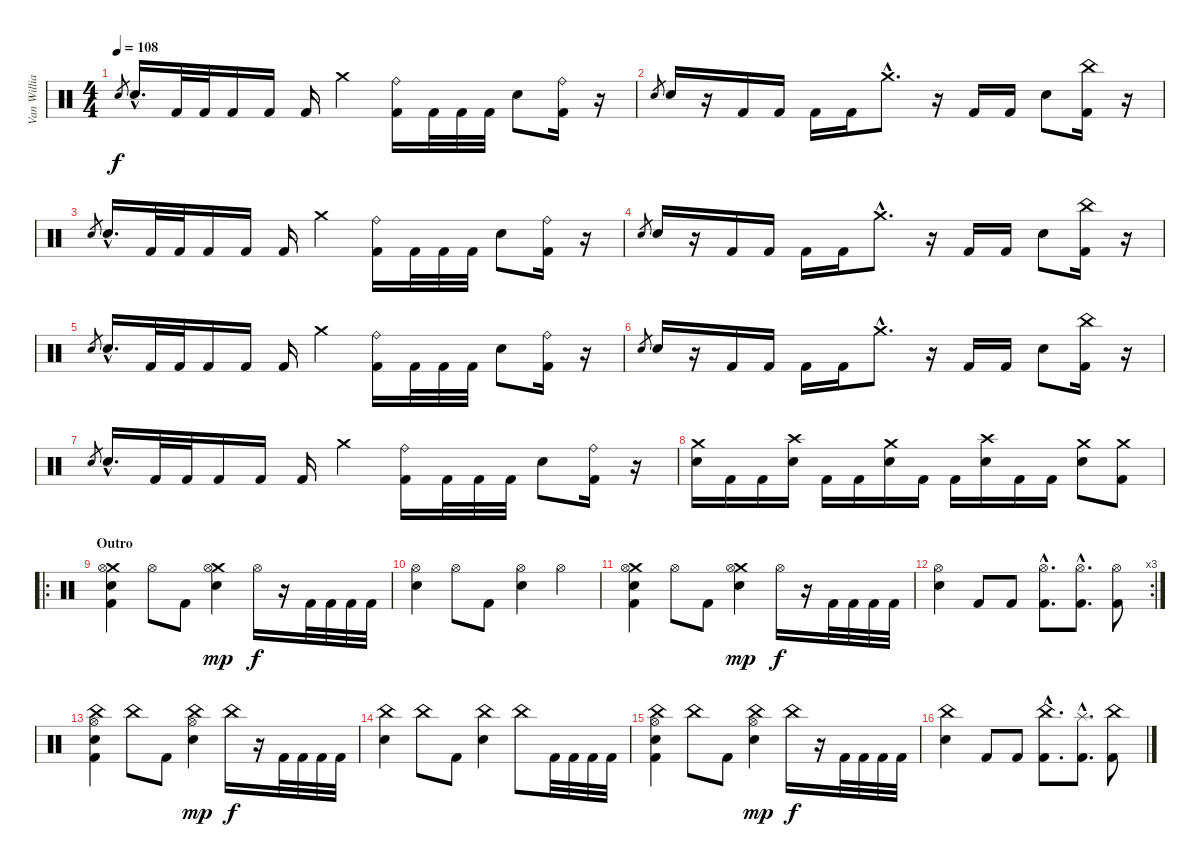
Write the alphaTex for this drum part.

\track ("Van Williams" "Van Willia") {instrument percussion}
\staff {score}
\articulation defaults
\ts (4 4)
\tempo 108
\clef neutral
\ks c "Electric Snare (hit)".8{gr dy f} "Electric Snare (hit)"{hac}.16{d} "Kick (hit) 2".32 "Kick (hit) 2".32 "Kick (hit) 2".16 "Kick (hit) 2".16 "Kick (hit) 2".16 "Crash medium (hit)".4
("Ride (bell)" "Kick (hit) 2").16 "Kick (hit) 2".32 "Kick (hit) 2".32 "Kick (hit) 2".32 "Electric Snare (hit)".8 ("Ride (bell)" "Kick (hit) 2").16 r.16 |
"Electric Snare (hit)".8{gr} "Electric Snare (hit)".16 r.16 "Kick (hit) 2".16 "Kick (hit) 2".16 "Kick (hit) 2".16 "Kick (hit) 2".16 "Crash medium (hit)"{hac}.8{d} r.16 "Kick (hit) 2".16 "Kick (hit) 2".16 "Electric Snare (hit)".8 ("China (hit)" "Kick (hit) 2").16 r.16 |
"Electric Snare (hit)".8{gr} "Electric Snare (hit)"{hac}.16{d} "Kick (hit) 2".32 "Kick (hit) 2".32 "Kick (hit) 2".16 "Kick (hit) 2".16 "Kick (hit) 2".16 "Crash medium (hit)".4 ("Ride (bell)" "Kick (hit) 2").16 "Kick (hit) 2".32 "Kick (hit) 2".32 "Kick (hit) 2".32 "Electric Snare (hit)".8 ("Ride (bell)" "Kick (hit) 2").16 r.16 |
"Electric Snare (hit)".8{gr} "Electric Snare (hit)".16 r.16 "Kick (hit) 2".16 "Kick (hit) 2".16 "Kick (hit) 2".16 "Kick (hit) 2".16 "Crash medium (hit)"{hac}.8{d} r.16 "Kick (hit) 2".16 "Kick (hit) 2".16 "Electric Snare (hit)".8 ("China (hit)" "Kick (hit) 2").16 r.16 |
"Electric Snare (hit)".8{gr} "Electric Snare (hit)"{hac}.16{d} "Kick (hit) 2".32 "Kick (hit) 2".32 "Kick (hit) 2".16 "Kick (hit) 2".16 "Kick (hit) 2".16 "Crash medium (hit)".4 ("Ride (bell)" "Kick (hit) 2").16 "Kick (hit) 2".32 "Kick (hit) 2".32 "Kick (hit) 2".32 "Electric Snare (hit)".8 ("Ride (bell)" "Kick (hit) 2").16 r.16 |
"Electric Snare (hit)".8{gr} "Electric Snare (hit)".16 r.16 "Kick (hit) 2".16 "Kick (hit) 2".16 "Kick (hit) 2".16 "Kick (hit) 2".16 "Crash medium (hit)"{hac}.8{d} r.16 "Kick (hit) 2".16 "Kick (hit) 2".16 "Electric Snare (hit)".8 ("China (hit)" "Kick (hit) 2").16 r.16 |
"Electric Snare (hit)".8{gr} "Electric Snare (hit)"{hac}.16{d} "Kick (hit) 2".32 "Kick (hit) 2".32 "Kick (hit) 2".16 "Kick (hit) 2".16 "Kick (hit) 2".16 "Crash medium (hit)".4 ("Ride (bell)" "Kick (hit) 2").16 "Kick (hit) 2".32 "Kick (hit) 2".32 "Kick (hit) 2".32 "Electric Snare (hit)".8 ("Ride (bell)" "Kick (hit) 2").16 r.16 |
("Crash medium (hit)" "Snare (hit) 2").16 "Kick (hit) 2".16 "Kick (hit) 2".16 ("Crash high (hit)" "Snare (hit) 2").16 "Kick (hit) 2".16 "Kick (hit) 2".16 ("Crash medium (hit)" "Snare (hit) 2").16 "Kick (hit) 2".16 "Kick (hit) 2".16 ("Crash high (hit)" "Snare (hit) 2").16 "Kick (hit) 2".16 "Kick (hit) 2".16 ("Crash medium (hit)" "Snare (hit) 2").8 ("Crash medium (hit)" "Kick (hit) 2").8 |
\ro
\section ("" "Outro")
("Crash medium (hit)" "Hi-Hat (open)" "Snare (hit) 2" "Kick (hit) 2").4 "Hi-Hat (open)".8 "Kick (hit) 2".8 ("Crash medium (hit)" "Hi-Hat (open)" "Snare (hit) 2").4{dy mp} "Hi-Hat (open)".16{dy f} r.16 "Kick (hit) 2".32 "Kick (hit) 2".32 "Kick (hit) 2".32 "Kick (hit) 2".32 |
("Hi-Hat (open)" "Snare (hit) 2").4 "Hi-Hat (open)".8 "Kick (hit) 2".8 ("Hi-Hat (open)" "Snare (hit) 2").4 "Hi-Hat (open)".4 |
("Crash medium (hit)" "Hi-Hat (open)" "Snare (hit) 2" "Kick (hit) 2").4 "Hi-Hat (open)".8 "Kick (hit) 2".8 ("Crash medium (hit)" "Hi-Hat (open)" "Snare (hit) 2").4{dy mp} "Hi-Hat (open)".16{dy f} r.16 "Kick (hit) 2".32 "Kick (hit) 2".32 "Kick (hit) 2".32 "Kick (hit) 2".32 |
\rc 3
("Hi-Hat (open)" "Snare (hit) 2").4 "Kick (hit) 2".8 "Kick (hit) 2".8 ("Hi-Hat (open)"{hac} "Kick (hit) 2"{hac}).8{d} ("Hi-Hat (open)"{hac} "Kick (hit) 2"{hac}).8{d} ("Hi-Hat (open)" "Kick (hit) 2").8 |
("China (hit)" "Hi-Hat (open)" "Snare (hit) 2" "Kick (hit) 2").4 "China (hit)".8 "Kick (hit) 2".8 ("China (hit)" "Hi-Hat (open)" "Snare (hit) 2").4{dy mp} "China (hit)".16{dy f} r.16 "Kick (hit) 2".32 "Kick (hit) 2".32 "Kick (hit) 2".32 "Kick (hit) 2".32 |
("China (hit)" "Snare (hit) 2").4 "China (hit)".8 "Kick (hit) 2".8 ("China (hit)" "Snare (hit) 2").4 "China (hit)".8 "Kick (hit) 2".32 "Kick (hit) 2".32 "Kick (hit) 2".32 "Kick (hit) 2".32 |
("China (hit)" "Hi-Hat (open)" "Snare (hit) 2" "Kick (hit) 2").4 "China (hit)".8 "Kick (hit) 2".8 ("China (hit)" "Hi-Hat (open)" "Snare (hit) 2").4{dy mp} "China (hit)".16{dy f} r.16 "Kick (hit) 2".32 "Kick (hit) 2".32 "Kick (hit) 2".32 "Kick (hit) 2".32 |
\section ("" "")
("China (hit)" "Snare (hit) 2").4 "Kick (hit) 2".8 "Kick (hit) 2".8 ("China (hit)"{hac} "Kick (hit) 2"{hac}).8{d} ("Splash (hit)"{hac} "Kick (hit) 2"{hac}).8{d} ("China (hit)" "Kick (hit) 2").8
